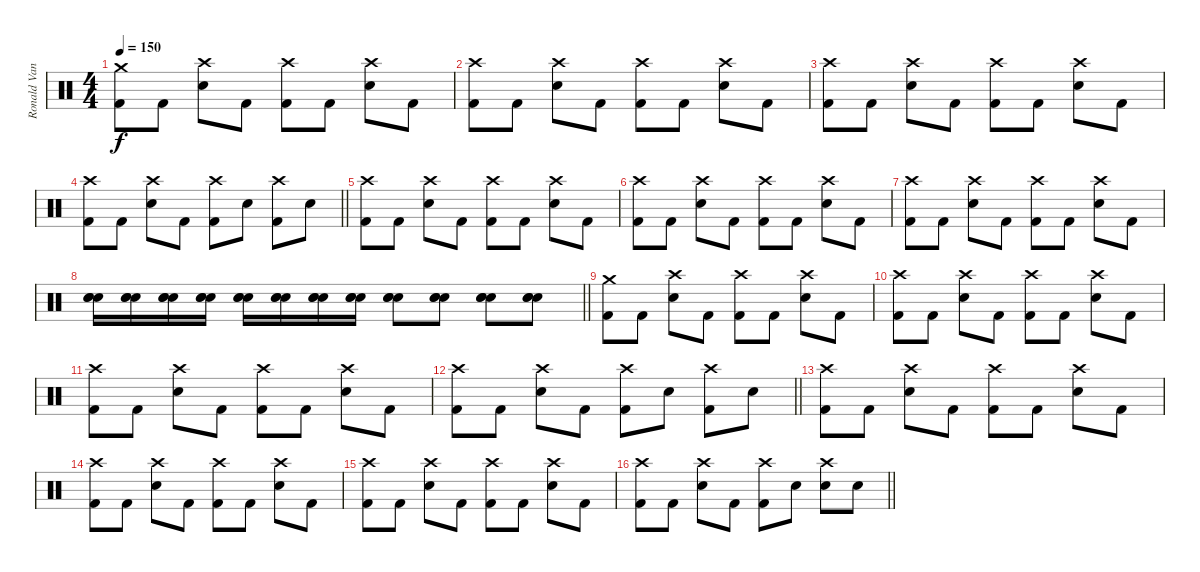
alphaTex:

\track ("Ronald Vanucci Jr (Drums)" "Ronald Van") {instrument percussion}
\staff {score}
\articulation defaults
\ts (4 4)
\tempo 150
\clef neutral
\ks c
("Crash medium (hit)" "Kick (hit) 2").8{dy f} "Kick (hit) 2".8 ("Crash high (hit)" "Snare (hit) 2").8 "Kick (hit) 2".8 ("Crash high (hit)" "Kick (hit) 2").8 "Kick (hit) 2".8 ("Crash high (hit)" "Snare (hit) 2").8 "Kick (hit) 2".8 |
("Crash high (hit)" "Kick (hit) 2").8 "Kick (hit) 2".8 ("Crash high (hit)" "Snare (hit) 2").8 "Kick (hit) 2".8 ("Crash high (hit)" "Kick (hit) 2").8 "Kick (hit) 2".8 ("Crash high (hit)" "Snare (hit) 2").8 "Kick (hit) 2".8 |
("Crash high (hit)" "Kick (hit) 2").8 "Kick (hit) 2".8 ("Crash high (hit)" "Snare (hit) 2").8 "Kick (hit) 2".8 ("Crash high (hit)" "Kick (hit) 2").8 "Kick (hit) 2".8 ("Crash high (hit)" "Snare (hit) 2").8 "Kick (hit) 2".8 |
\barLineRight lightlight
("Crash high (hit)" "Kick (hit) 2").8 "Kick (hit) 2".8 ("Crash high (hit)" "Snare (hit) 2").8 "Kick (hit) 2".8 ("Crash high (hit)" "Kick (hit) 2").8 "Snare (hit) 2".8 ("Crash high (hit)" "Kick (hit) 2").8 "Snare (hit) 2".8 |
("Crash high (hit)" "Kick (hit) 2").8 "Kick (hit) 2".8 ("Crash high (hit)" "Snare (hit) 2").8 "Kick (hit) 2".8 ("Crash high (hit)" "Kick (hit) 2").8 "Kick (hit) 2".8 ("Crash high (hit)" "Snare (hit) 2").8 "Kick (hit) 2".8 |
("Crash high (hit)" "Kick (hit) 2").8 "Kick (hit) 2".8 ("Crash high (hit)" "Snare (hit) 2").8 "Kick (hit) 2".8 ("Crash high (hit)" "Kick (hit) 2").8 "Kick (hit) 2".8 ("Crash high (hit)" "Snare (hit) 2").8 "Kick (hit) 2".8 |
("Crash high (hit)" "Kick (hit) 2").8 "Kick (hit) 2".8 ("Crash high (hit)" "Snare (hit) 2").8 "Kick (hit) 2".8 ("Crash high (hit)" "Kick (hit) 2").8 "Kick (hit) 2".8 ("Crash high (hit)" "Snare (hit) 2").8 "Kick (hit) 2".8 |
\barLineRight lightlight
("Hand Clap (hit)" "Electric Snare (hit)" "Snare (hit) 2").16 ("Hand Clap (hit)" "Electric Snare (hit)" "Snare (hit) 2").16 ("Hand Clap (hit)" "Electric Snare (hit)" "Snare (hit) 2").16 ("Hand Clap (hit)" "Electric Snare (hit)" "Snare (hit) 2").16 ("Hand Clap (hit)" "Electric Snare (hit)" "Snare (hit) 2").16 ("Hand Clap (hit)" "Electric Snare (hit)" "Snare (hit) 2").16 ("Hand Clap (hit)" "Electric Snare (hit)" "Snare (hit) 2").16 ("Hand Clap (hit)" "Electric Snare (hit)" "Snare (hit) 2").16 ("Hand Clap (hit)" "Electric Snare (hit)" "Snare (hit) 2").8 ("Hand Clap (hit)" "Electric Snare (hit)" "Snare (hit) 2").8 ("Hand Clap (hit)" "Electric Snare (hit)" "Snare (hit) 2").8 ("Hand Clap (hit)" "Electric Snare (hit)" "Snare (hit) 2").8 |
("Crash medium (hit)" "Kick (hit) 2").8 "Kick (hit) 2".8 ("Crash high (hit)" "Snare (hit) 2").8 "Kick (hit) 2".8 ("Crash high (hit)" "Kick (hit) 2").8 "Kick (hit) 2".8 ("Crash high (hit)" "Snare (hit) 2").8 "Kick (hit) 2".8 |
("Crash high (hit)" "Kick (hit) 2").8 "Kick (hit) 2".8 ("Crash high (hit)" "Snare (hit) 2").8 "Kick (hit) 2".8 ("Crash high (hit)" "Kick (hit) 2").8 "Kick (hit) 2".8 ("Crash high (hit)" "Snare (hit) 2").8 "Kick (hit) 2".8 |
("Crash high (hit)" "Kick (hit) 2").8 "Kick (hit) 2".8 ("Crash high (hit)" "Snare (hit) 2").8 "Kick (hit) 2".8 ("Crash high (hit)" "Kick (hit) 2").8 "Kick (hit) 2".8 ("Crash high (hit)" "Snare (hit) 2").8 "Kick (hit) 2".8 |
\barLineRight lightlight
("Crash high (hit)" "Kick (hit) 2").8 "Kick (hit) 2".8 ("Crash high (hit)" "Snare (hit) 2").8 "Kick (hit) 2".8 ("Crash high (hit)" "Kick (hit) 2").8 "Snare (hit) 2".8 ("Crash high (hit)" "Kick (hit) 2").8 "Snare (hit) 2".8 |
("Crash high (hit)" "Kick (hit) 2").8 "Kick (hit) 2".8 ("Crash high (hit)" "Snare (hit) 2").8 "Kick (hit) 2".8 ("Crash high (hit)" "Kick (hit) 2").8 "Kick (hit) 2".8 ("Crash high (hit)" "Snare (hit) 2").8 "Kick (hit) 2".8 |
("Crash high (hit)" "Kick (hit) 2").8 "Kick (hit) 2".8 ("Crash high (hit)" "Snare (hit) 2").8 "Kick (hit) 2".8 ("Crash high (hit)" "Kick (hit) 2").8 "Kick (hit) 2".8 ("Crash high (hit)" "Snare (hit) 2").8 "Kick (hit) 2".8 |
("Crash high (hit)" "Kick (hit) 2").8 "Kick (hit) 2".8 ("Crash high (hit)" "Snare (hit) 2").8 "Kick (hit) 2".8 ("Crash high (hit)" "Kick (hit) 2").8 "Kick (hit) 2".8 ("Crash high (hit)" "Snare (hit) 2").8 "Kick (hit) 2".8 |
\barLineRight lightlight
("Crash high (hit)" "Kick (hit) 2").8 "Kick (hit) 2".8 ("Crash high (hit)" "Snare (hit) 2").8 "Kick (hit) 2".8 ("Crash high (hit)" "Kick (hit) 2").8 "Snare (hit) 2".8 ("Crash high (hit)" "Snare (hit) 2").8 "Snare (hit) 2".8
